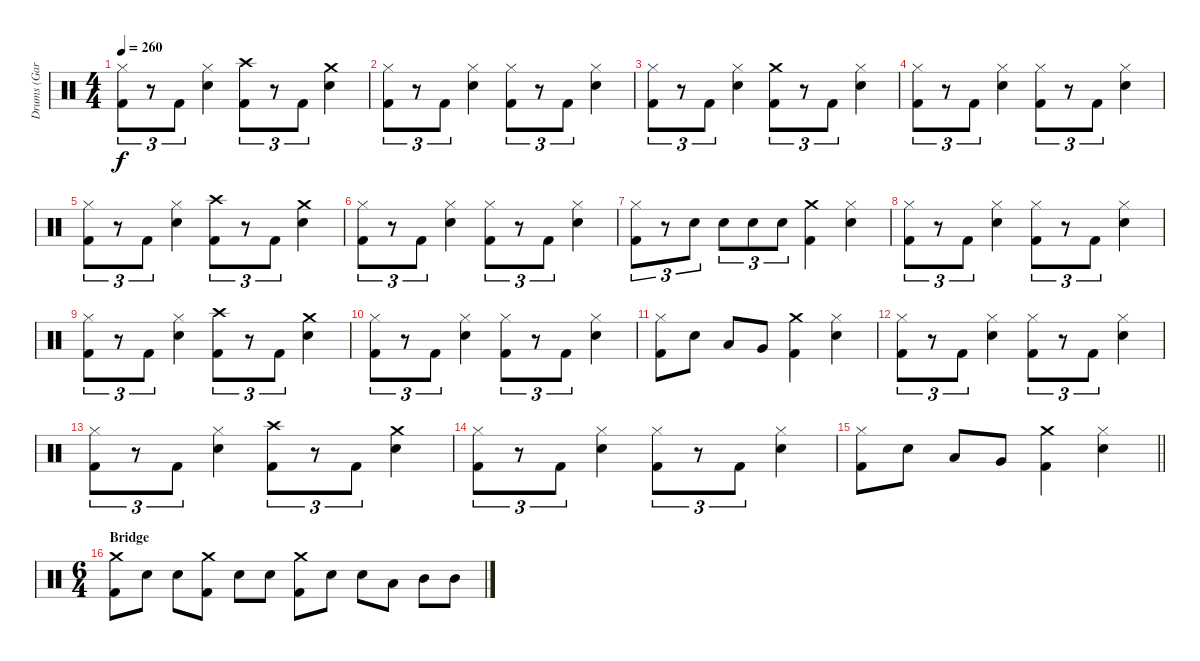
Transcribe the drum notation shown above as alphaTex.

\track ("Drums (Gar Samuelson)" "Drums (Gar") {instrument percussion}
\staff {score}
\articulation defaults
\ts (4 4)
\tempo 260
\clef neutral
\ks c
("Hi-Hat (closed)" "Kick (hit) 2").8{tu (3 2) dy f} r.8{tu (3 2)} "Kick (hit) 2".8{tu (3 2)} ("Hi-Hat (closed)" "Snare (hit) 2").4 ("Crash high (hit)" "Kick (hit) 2").8{tu (3 2)} r.8{tu (3 2)} "Kick (hit) 2".8{tu (3 2)} ("Crash medium (hit)" "Snare (hit) 2").4 |
("Hi-Hat (closed)" "Kick (hit) 2").8{tu (3 2)} r.8{tu (3 2)} "Kick (hit) 2".8{tu (3 2)} ("Hi-Hat (closed)" "Snare (hit) 2").4 ("Hi-Hat (closed)" "Kick (hit) 2").8{tu (3 2)} r.8{tu (3 2)} "Kick (hit) 2".8{tu (3 2)} ("Hi-Hat (closed)" "Snare (hit) 2").4 |
("Hi-Hat (closed)" "Kick (hit) 2").8{tu (3 2)} r.8{tu (3 2)} "Kick (hit) 2".8{tu (3 2)} ("Hi-Hat (closed)" "Snare (hit) 2").4 ("Crash medium (hit)" "Kick (hit) 2").8{tu (3 2)} r.8{tu (3 2)} "Kick (hit) 2".8{tu (3 2)} ("Hi-Hat (closed)" "Snare (hit) 2").4 |
("Hi-Hat (closed)" "Kick (hit) 2").8{tu (3 2)} r.8{tu (3 2)} "Kick (hit) 2".8{tu (3 2)} ("Hi-Hat (closed)" "Snare (hit) 2").4 ("Hi-Hat (closed)" "Kick (hit) 2").8{tu (3 2)} r.8{tu (3 2)} "Kick (hit) 2".8{tu (3 2)} ("Hi-Hat (closed)" "Snare (hit) 2").4 |
("Hi-Hat (closed)" "Kick (hit) 2").8{tu (3 2)} r.8{tu (3 2)} "Kick (hit) 2".8{tu (3 2)} ("Hi-Hat (closed)" "Snare (hit) 2").4 ("Crash high (hit)" "Kick (hit) 2").8{tu (3 2)} r.8{tu (3 2)} "Kick (hit) 2".8{tu (3 2)} ("Crash medium (hit)" "Snare (hit) 2").4 |
("Hi-Hat (closed)" "Kick (hit) 2").8{tu (3 2)} r.8{tu (3 2)} "Kick (hit) 2".8{tu (3 2)} ("Hi-Hat (closed)" "Snare (hit) 2").4 ("Hi-Hat (closed)" "Kick (hit) 2").8{tu (3 2)} r.8{tu (3 2)} "Kick (hit) 2".8{tu (3 2)} ("Hi-Hat (closed)" "Snare (hit) 2").4 |
("Hi-Hat (closed)" "Kick (hit) 2").8{tu (3 2)} r.8{tu (3 2)} "Snare (hit) 2".8{tu (3 2)} "Snare (hit) 2".8{tu (3 2)} "Snare (hit) 2".8{tu (3 2)} "Snare (hit) 2".8{tu (3 2)} ("Crash medium (hit)" "Kick (hit) 2").4 ("Hi-Hat (closed)" "Snare (hit) 2").4 |
("Hi-Hat (closed)" "Kick (hit) 2").8{tu (3 2)} r.8{tu (3 2)} "Kick (hit) 2".8{tu (3 2)} ("Hi-Hat (closed)" "Snare (hit) 2").4 ("Hi-Hat (closed)" "Kick (hit) 2").8{tu (3 2)} r.8{tu (3 2)} "Kick (hit) 2".8{tu (3 2)} ("Hi-Hat (closed)" "Snare (hit) 2").4 |
("Hi-Hat (closed)" "Kick (hit) 2").8{tu (3 2)} r.8{tu (3 2)} "Kick (hit) 2".8{tu (3 2)} ("Hi-Hat (closed)" "Snare (hit) 2").4 ("Crash high (hit)" "Kick (hit) 2").8{tu (3 2)} r.8{tu (3 2)} "Kick (hit) 2".8{tu (3 2)} ("Crash medium (hit)" "Snare (hit) 2").4 |
("Hi-Hat (closed)" "Kick (hit) 2").8{tu (3 2)} r.8{tu (3 2)} "Kick (hit) 2".8{tu (3 2)} ("Hi-Hat (closed)" "Snare (hit) 2").4 ("Hi-Hat (closed)" "Kick (hit) 2").8{tu (3 2)} r.8{tu (3 2)} "Kick (hit) 2".8{tu (3 2)} ("Hi-Hat (closed)" "Snare (hit) 2").4 |
("Hi-Hat (closed)" "Kick (hit) 2").8 "Snare (hit) 2".8 "Low Tom (hit)".8 "Very Low Tom (hit)".8 ("Crash medium (hit)" "Kick (hit) 2").4 ("Hi-Hat (closed)" "Snare (hit) 2").4 |
("Hi-Hat (closed)" "Kick (hit) 2").8{tu (3 2)} r.8{tu (3 2)} "Kick (hit) 2".8{tu (3 2)} ("Hi-Hat (closed)" "Snare (hit) 2").4 ("Hi-Hat (closed)" "Kick (hit) 2").8{tu (3 2)} r.8{tu (3 2)} "Kick (hit) 2".8{tu (3 2)} ("Hi-Hat (closed)" "Snare (hit) 2").4 |
("Hi-Hat (closed)" "Kick (hit) 2").8{tu (3 2)} r.8{tu (3 2)} "Kick (hit) 2".8{tu (3 2)} ("Hi-Hat (closed)" "Snare (hit) 2").4 ("Crash high (hit)" "Kick (hit) 2").8{tu (3 2)} r.8{tu (3 2)} "Kick (hit) 2".8{tu (3 2)} ("Crash medium (hit)" "Snare (hit) 2").4 |
("Hi-Hat (closed)" "Kick (hit) 2").8{tu (3 2)} r.8{tu (3 2)} "Kick (hit) 2".8{tu (3 2)} ("Hi-Hat (closed)" "Snare (hit) 2").4 ("Hi-Hat (closed)" "Kick (hit) 2").8{tu (3 2)} r.8{tu (3 2)} "Kick (hit) 2".8{tu (3 2)} ("Hi-Hat (closed)" "Snare (hit) 2").4 |
\barLineRight lightlight
("Hi-Hat (closed)" "Kick (hit) 2").8 "Snare (hit) 2".8 "Low Tom (hit)".8 "Very Low Tom (hit)".8 ("Crash medium (hit)" "Kick (hit) 2").4 ("Hi-Hat (closed)" "Snare (hit) 2").4 |
\ts (6 4)
\section ("" "Bridge")
("Crash medium (hit)" "Kick (hit) 2").8 "Snare (hit) 2".8 "Snare (hit) 2".8 ("Crash medium (hit)" "Kick (hit) 2").8 "Snare (hit) 2".8 "Snare (hit) 2".8 ("Crash medium (hit)" "Kick (hit) 2").8 "Snare (hit) 2".8 "Snare (hit) 2".8 "Low Tom (hit)".8 "Mid Tom (hit)".8 "Mid Tom (hit)".8
